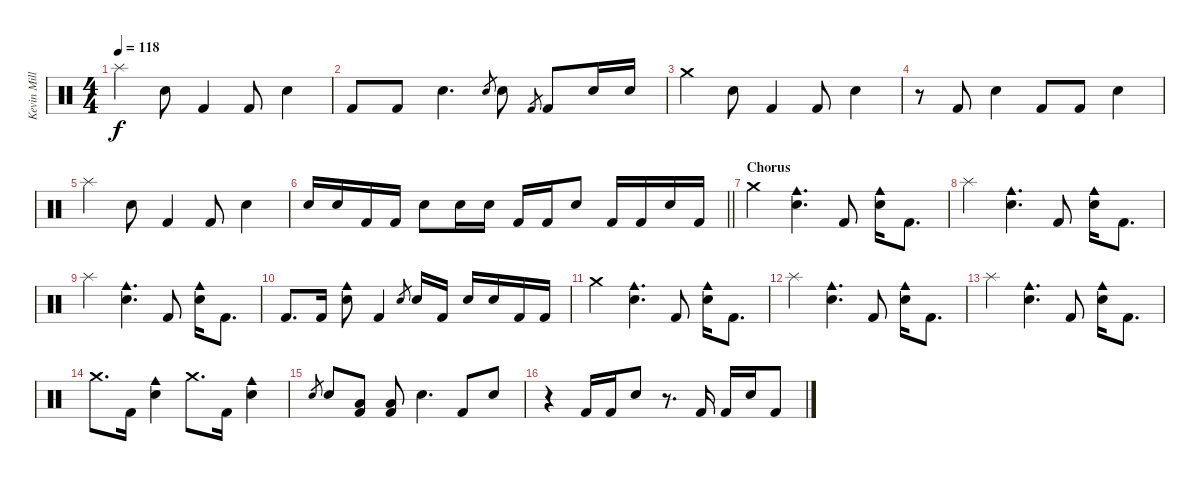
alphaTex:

\track ("Kevin Miller (Drums)" "Kevin Mill") {instrument percussion}
\staff {score}
\articulation defaults
\ts (4 4)
\tempo 118
\clef neutral
\ks c "Splash (hit)".4{dy f} "Electric Snare (hit)".8 "Kick (hit) 2".4 "Kick (hit) 2".8 "Electric Snare (hit)".4
|
"Kick (hit) 2".8 "Kick (hit) 2".8 "Electric Snare (hit)".4{d} "Electric Snare (hit)".8{gr} "Electric Snare (hit)".8 "Kick (hit) 2".8{gr} "Kick (hit) 2".8 "Electric Snare (hit)".16 "Electric Snare (hit)".16 |
"Crash medium (hit)".4 "Electric Snare (hit)".8 "Kick (hit) 2".4 "Kick (hit) 2".8 "Electric Snare (hit)".4 |
r.8 "Kick (hit) 2".8 "Electric Snare (hit)".4 "Kick (hit) 2".8 "Kick (hit) 2".8 "Electric Snare (hit)".4 |
"Splash (hit)".4 "Electric Snare (hit)".8 "Kick (hit) 2".4 "Kick (hit) 2".8 "Electric Snare (hit)".4 |
\barLineRight lightlight "Electric Snare (hit)".16 "Electric Snare (hit)".16 "Kick (hit) 2".16 "Kick (hit) 2".16 "Electric Snare (hit)".8 "Electric Snare (hit)".16 "Electric Snare (hit)".16 "Kick (hit) 2".16 "Kick (hit) 2".16 "Electric Snare (hit)".8 "Kick (hit) 2".16 "Kick (hit) 2".16 "Electric Snare (hit)".16 "Kick (hit) 2".16
|
\section ("" "Chorus")
"Crash medium (hit)".4 ("Electric Snare (hit)" "Cowbell medium (hit)").4{d} "Kick (hit) 2".8 ("Electric Snare (hit)" "Cowbell medium (hit)").16 "Kick (hit) 2".8{d} |
"Splash (hit)".4 ("Electric Snare (hit)" "Cowbell medium (hit)").4{d} "Kick (hit) 2".8 ("Electric Snare (hit)" "Cowbell medium (hit)").16 "Kick (hit) 2".8{d} |
"Splash (hit)".4 ("Electric Snare (hit)" "Cowbell medium (hit)").4{d} "Kick (hit) 2".8 ("Electric Snare (hit)" "Cowbell medium (hit)").16 "Kick (hit) 2".8{d} |
"Kick (hit) 2".8{d} "Kick (hit) 2".16 ("Electric Snare (hit)" "Cowbell medium (hit)").8 "Kick (hit) 2".4 "Electric Snare (hit)".8{gr} "Electric Snare (hit)".16 "Kick (hit) 2".16 "Electric Snare (hit)".16 "Electric Snare (hit)".16 "Kick (hit) 2".16 "Kick (hit) 2".16 |
"Crash medium (hit)".4 ("Electric Snare (hit)" "Cowbell medium (hit)").4{d} "Kick (hit) 2".8 ("Electric Snare (hit)" "Cowbell medium (hit)").16 "Kick (hit) 2".8{d} |
"Splash (hit)".4 ("Electric Snare (hit)" "Cowbell medium (hit)").4{d} "Kick (hit) 2".8 ("Electric Snare (hit)" "Cowbell medium (hit)").16 "Kick (hit) 2".8{d} |
"Splash (hit)".4 ("Electric Snare (hit)" "Cowbell medium (hit)").4{d} "Kick (hit) 2".8 ("Electric Snare (hit)" "Cowbell medium (hit)").16 "Kick (hit) 2".8{d} |
"Crash medium (hit)".8{d} "Kick (hit) 2".16 ("Electric Snare (hit)" "Cowbell medium (hit)").4 "Crash medium (hit)".8{d} "Kick (hit) 2".16 ("Electric Snare (hit)" "Cowbell medium (hit)").4 |
"Electric Snare (hit)".8{gr} "Electric Snare (hit)".8 ("Kick (hit) 2" "Low Tom (hit)").8 ("Kick (hit) 2" "Low Tom (hit)").8 "Electric Snare (hit)".4{d} "Kick (hit) 2".8 "Electric Snare (hit)".8 |
r.4 "Kick (hit) 2".16 "Kick (hit) 2".16 "Electric Snare (hit)".8 r.8{d} "Kick (hit) 2".16 "Kick (hit) 2".16 "Electric Snare (hit)".16 "Kick (hit) 2".8
